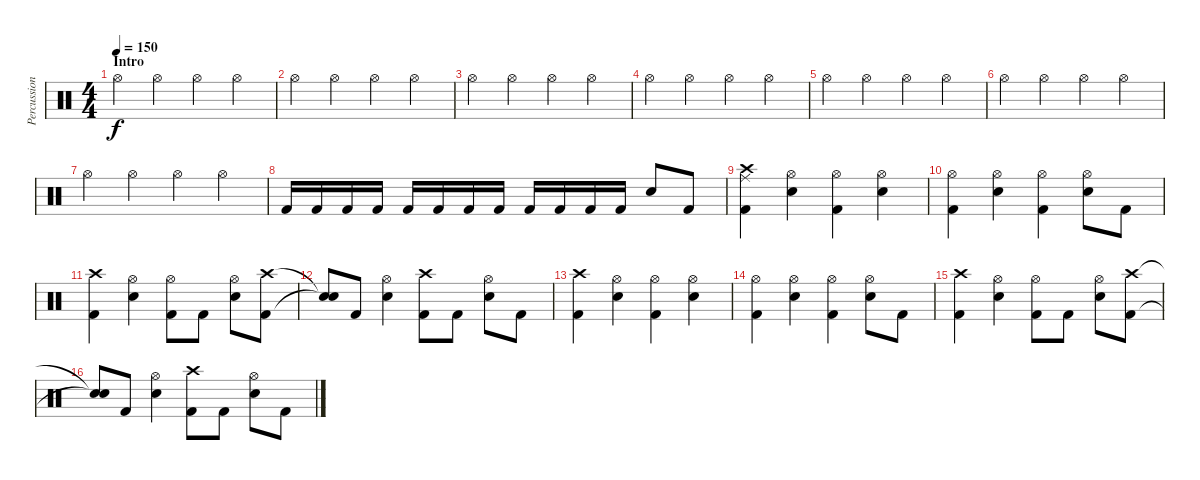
\track ("Percussion" "Percussion") {instrument percussion}
\staff {score}
\articulation defaults
\ts (4 4)
\section ("" "Intro")
\tempo 150
\clef neutral
\ks c "Hi-Hat (open)".4{dy f} "Hi-Hat (open)".4 "Hi-Hat (open)".4 "Hi-Hat (open)".4
|
"Hi-Hat (open)".4 "Hi-Hat (open)".4 "Hi-Hat (open)".4 "Hi-Hat (open)".4 |
"Hi-Hat (open)".4 "Hi-Hat (open)".4 "Hi-Hat (open)".4 "Hi-Hat (open)".4 |
"Hi-Hat (open)".4 "Hi-Hat (open)".4 "Hi-Hat (open)".4 "Hi-Hat (open)".4 |
"Hi-Hat (open)".4 "Hi-Hat (open)".4 "Hi-Hat (open)".4 "Hi-Hat (open)".4 |
"Hi-Hat (open)".4 "Hi-Hat (open)".4 "Hi-Hat (open)".4 "Hi-Hat (open)".4 |
"Hi-Hat (open)".4 "Hi-Hat (open)".4 "Hi-Hat (open)".4 "Hi-Hat (open)".4 |
"Kick (hit) 2".16 "Kick (hit) 2".16 "Kick (hit) 2".16 "Kick (hit) 2".16 "Kick (hit) 2".16 "Kick (hit) 2".16 "Kick (hit) 2".16 "Kick (hit) 2".16 "Kick (hit) 2".16 "Kick (hit) 2".16 "Kick (hit) 2".16 "Kick (hit) 2".16 "Electric Snare (hit)".8 "Kick (hit) 2".8 |
("Crash high (hit)" "Kick (hit) 2" "Ride (middle)").4 ("Hi-Hat (open)" "Electric Snare (hit)").4 ("Hi-Hat (open)" "Kick (hit) 2").4 ("Hi-Hat (open)" "Electric Snare (hit)").4 |
("Hi-Hat (open)" "Kick (hit) 2").4 ("Hi-Hat (open)" "Electric Snare (hit)").4 ("Hi-Hat (open)" "Kick (hit) 2").4 ("Hi-Hat (open)" "Electric Snare (hit)").8 "Kick (hit) 2".8 |
("Crash high (hit)" "Kick (hit) 2").4 ("Hi-Hat (open)" "Electric Snare (hit)").4 ("Hi-Hat (open)" "Kick (hit) 2").8 "Kick (hit) 2".8 ("Hi-Hat (open)" "Electric Snare (hit)").8 ("Crash high (hit)" "Kick (hit) 2").8 |
("Snare (hit)"{t} "Snare (hit)"{t}).8 "Kick (hit) 2".8 ("Hi-Hat (open)" "Electric Snare (hit)").4 ("Crash high (hit)" "Kick (hit) 2").8 "Kick (hit) 2".8 ("Hi-Hat (open)" "Electric Snare (hit)").8 "Kick (hit) 2".8 |
("Crash high (hit)" "Kick (hit) 2").4 ("Hi-Hat (open)" "Electric Snare (hit)").4 ("Hi-Hat (open)" "Kick (hit) 2").4 ("Hi-Hat (open)" "Electric Snare (hit)").4 |
("Hi-Hat (open)" "Kick (hit) 2").4 ("Hi-Hat (open)" "Electric Snare (hit)").4 ("Hi-Hat (open)" "Kick (hit) 2").4 ("Hi-Hat (open)" "Electric Snare (hit)").8 "Kick (hit) 2".8 |
("Crash high (hit)" "Kick (hit) 2").4 ("Hi-Hat (open)" "Electric Snare (hit)").4 ("Hi-Hat (open)" "Kick (hit) 2").8 "Kick (hit) 2".8 ("Hi-Hat (open)" "Electric Snare (hit)").8 ("Crash high (hit)" "Kick (hit) 2").8 |
("Snare (hit)"{t} "Snare (hit)"{t}).8 "Kick (hit) 2".8 ("Hi-Hat (open)" "Electric Snare (hit)").4 ("Crash high (hit)" "Kick (hit) 2").8 "Kick (hit) 2".8 ("Hi-Hat (open)" "Electric Snare (hit)").8 "Kick (hit) 2".8
